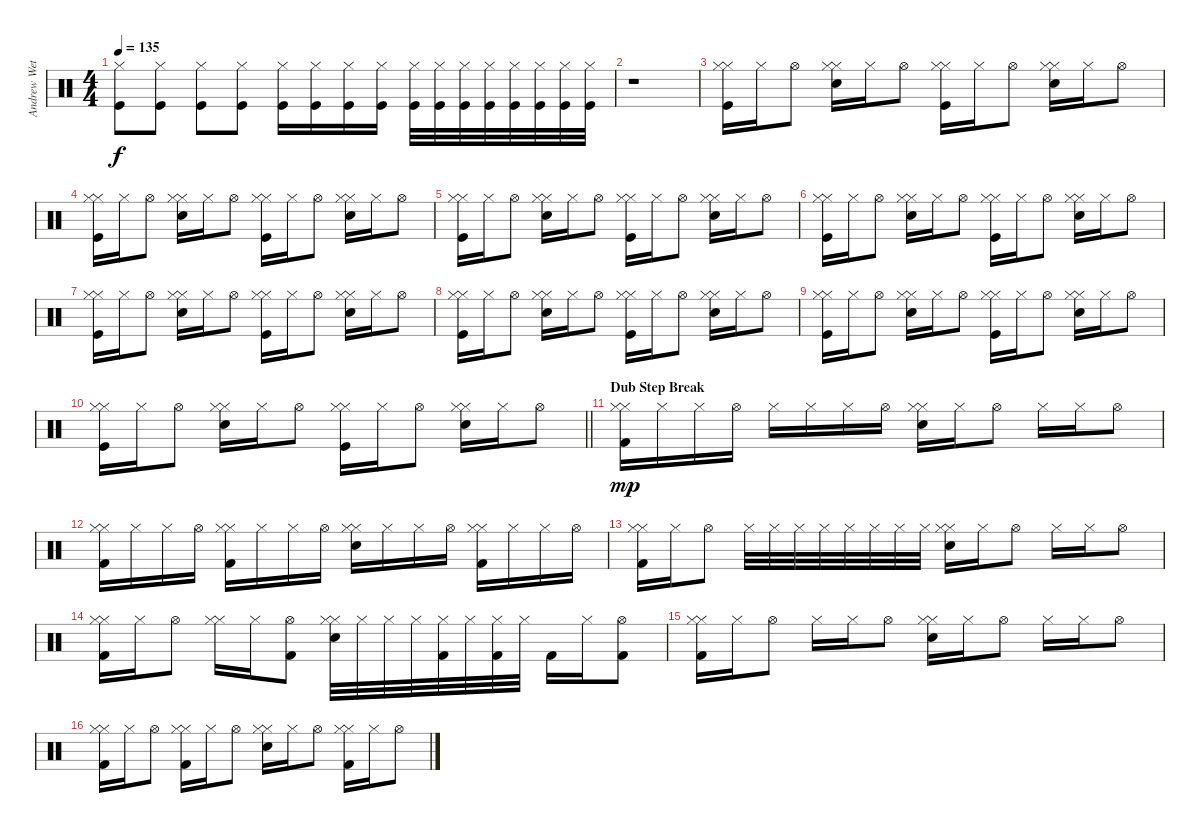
\track ("Andrew Wetzel" "Andrew Wet") {instrument percussion}
\staff
\articulation defaults
\ts (4 4)
\tempo 135
\clef neutral
\ks c
("Hi-Hat (closed)" "Kick (hit)").8{dy f} ("Hi-Hat (closed)" "Kick (hit)").8 ("Hi-Hat (closed)" "Kick (hit)").8 ("Hi-Hat (closed)" "Kick (hit)").8 ("Hi-Hat (closed)" "Kick (hit)").16 ("Hi-Hat (closed)" "Kick (hit)").16 ("Hi-Hat (closed)" "Kick (hit)").16 ("Hi-Hat (closed)" "Kick (hit)").16 ("Hi-Hat (closed)" "Kick (hit)").32 ("Hi-Hat (closed)" "Kick (hit)").32 ("Hi-Hat (closed)" "Kick (hit)").32 ("Hi-Hat (closed)" "Kick (hit)").32 ("Hi-Hat (closed)" "Kick (hit)").32 ("Hi-Hat (closed)" "Kick (hit)").32 ("Hi-Hat (closed)" "Kick (hit)").32 ("Hi-Hat (closed)" "Kick (hit)").32 |
r.1 |
("Hi-Hat (closed)" "Hi-Hat (closed)" "Kick (hit)").16{volume 13} "Hi-Hat (closed)".16 "Hi-Hat (open)".8 ("Hi-Hat (closed)" "Hi-Hat (closed)" "Electric Snare (hit)").16 "Hi-Hat (closed)".16 "Hi-Hat (open)".8 ("Hi-Hat (closed)" "Hi-Hat (closed)" "Kick (hit)").16 "Hi-Hat (closed)".16 "Hi-Hat (open)".8 ("Hi-Hat (closed)" "Hi-Hat (closed)" "Electric Snare (hit)").16 "Hi-Hat (closed)".16 "Hi-Hat (open)".8 |
("Hi-Hat (closed)" "Hi-Hat (closed)" "Kick (hit)").16 "Hi-Hat (closed)".16 "Hi-Hat (open)".8 ("Hi-Hat (closed)" "Hi-Hat (closed)" "Electric Snare (hit)").16 "Hi-Hat (closed)".16 "Hi-Hat (open)".8 ("Hi-Hat (closed)" "Hi-Hat (closed)" "Kick (hit)").16 "Hi-Hat (closed)".16 "Hi-Hat (open)".8 ("Hi-Hat (closed)" "Hi-Hat (closed)" "Electric Snare (hit)").16 "Hi-Hat (closed)".16 "Hi-Hat (open)".8 |
("Hi-Hat (closed)" "Hi-Hat (closed)" "Kick (hit)").16 "Hi-Hat (closed)".16 "Hi-Hat (open)".8 ("Hi-Hat (closed)" "Hi-Hat (closed)" "Electric Snare (hit)").16 "Hi-Hat (closed)".16 "Hi-Hat (open)".8 ("Hi-Hat (closed)" "Hi-Hat (closed)" "Kick (hit)").16 "Hi-Hat (closed)".16 "Hi-Hat (open)".8 ("Hi-Hat (closed)" "Hi-Hat (closed)" "Electric Snare (hit)").16 "Hi-Hat (closed)".16 "Hi-Hat (open)".8 |
("Hi-Hat (closed)" "Hi-Hat (closed)" "Kick (hit)").16 "Hi-Hat (closed)".16 "Hi-Hat (open)".8 ("Hi-Hat (closed)" "Hi-Hat (closed)" "Electric Snare (hit)").16 "Hi-Hat (closed)".16 "Hi-Hat (open)".8 ("Hi-Hat (closed)" "Hi-Hat (closed)" "Kick (hit)").16 "Hi-Hat (closed)".16 "Hi-Hat (open)".8 ("Hi-Hat (closed)" "Hi-Hat (closed)" "Electric Snare (hit)").16 "Hi-Hat (closed)".16 "Hi-Hat (open)".8 |
("Hi-Hat (closed)" "Hi-Hat (closed)" "Kick (hit)").16 "Hi-Hat (closed)".16 "Hi-Hat (open)".8 ("Hi-Hat (closed)" "Hi-Hat (closed)" "Electric Snare (hit)").16 "Hi-Hat (closed)".16 "Hi-Hat (open)".8 ("Hi-Hat (closed)" "Hi-Hat (closed)" "Kick (hit)").16 "Hi-Hat (closed)".16 "Hi-Hat (open)".8 ("Hi-Hat (closed)" "Hi-Hat (closed)" "Electric Snare (hit)").16 "Hi-Hat (closed)".16 "Hi-Hat (open)".8 |
("Hi-Hat (closed)" "Hi-Hat (closed)" "Kick (hit)").16 "Hi-Hat (closed)".16 "Hi-Hat (open)".8 ("Hi-Hat (closed)" "Hi-Hat (closed)" "Electric Snare (hit)").16 "Hi-Hat (closed)".16 "Hi-Hat (open)".8 ("Hi-Hat (closed)" "Hi-Hat (closed)" "Kick (hit)").16 "Hi-Hat (closed)".16 "Hi-Hat (open)".8 ("Hi-Hat (closed)" "Hi-Hat (closed)" "Electric Snare (hit)").16 "Hi-Hat (closed)".16 "Hi-Hat (open)".8 |
("Hi-Hat (closed)" "Hi-Hat (closed)" "Kick (hit)").16 "Hi-Hat (closed)".16 "Hi-Hat (open)".8 ("Hi-Hat (closed)" "Hi-Hat (closed)" "Electric Snare (hit)").16 "Hi-Hat (closed)".16 "Hi-Hat (open)".8 ("Hi-Hat (closed)" "Hi-Hat (closed)" "Kick (hit)").16 "Hi-Hat (closed)".16 "Hi-Hat (open)".8 ("Hi-Hat (closed)" "Hi-Hat (closed)" "Electric Snare (hit)").16 "Hi-Hat (closed)".16 "Hi-Hat (open)".8 |
\barLineRight lightlight
("Hi-Hat (closed)" "Hi-Hat (closed)" "Kick (hit)").16 "Hi-Hat (closed)".16 "Hi-Hat (open)".8 ("Hi-Hat (closed)" "Hi-Hat (closed)" "Electric Snare (hit)").16 "Hi-Hat (closed)".16 "Hi-Hat (open)".8 ("Hi-Hat (closed)" "Hi-Hat (closed)" "Kick (hit)").16 "Hi-Hat (closed)".16 "Hi-Hat (open)".8 ("Hi-Hat (closed)" "Hi-Hat (closed)" "Electric Snare (hit)").16 "Hi-Hat (closed)".16 "Hi-Hat (open)".8 |
\section ("" "Dub Step Break")
("Hi-Hat (closed)" "Hi-Hat (closed)" "Kick (hit) 2").16{dy mp volume 13} "Hi-Hat (closed)".16 "Hi-Hat (closed)".16 "Hi-Hat (open)".16 "Hi-Hat (closed)".16 "Hi-Hat (closed)".16 "Hi-Hat (closed)".16 "Hi-Hat (open)".16 ("Hi-Hat (closed)" "Hi-Hat (closed)" "Electric Snare (hit)").16 "Hi-Hat (closed)".16 "Hi-Hat (open)".8 "Hi-Hat (closed)".16 "Hi-Hat (closed)".16 "Hi-Hat (open)".8 |
("Hi-Hat (closed)" "Hi-Hat (closed)" "Kick (hit) 2").16 "Hi-Hat (closed)".16 "Hi-Hat (closed)".16 "Hi-Hat (open)".16 ("Hi-Hat (closed)" "Hi-Hat (closed)" "Kick (hit) 2").16 "Hi-Hat (closed)".16 "Hi-Hat (closed)".16 "Hi-Hat (open)".16 ("Hi-Hat (closed)" "Hi-Hat (closed)" "Electric Snare (hit)").16 "Hi-Hat (closed)".16 "Hi-Hat (closed)".16 "Hi-Hat (open)".16 ("Hi-Hat (closed)" "Hi-Hat (closed)" "Kick (hit) 2").16 "Hi-Hat (closed)".16 "Hi-Hat (closed)".16 "Hi-Hat (open)".16 |
("Hi-Hat (closed)" "Hi-Hat (closed)" "Kick (hit) 2").16 "Hi-Hat (closed)".16 "Hi-Hat (open)".8 "Hi-Hat (closed)".32 "Hi-Hat (closed)".32 "Hi-Hat (closed)".32 "Hi-Hat (closed)".32 "Hi-Hat (closed)".32 "Hi-Hat (closed)".32 "Hi-Hat (closed)".32 "Hi-Hat (closed)".32 ("Hi-Hat (closed)" "Hi-Hat (closed)" "Electric Snare (hit)").16 "Hi-Hat (closed)".16 "Hi-Hat (open)".8 "Hi-Hat (closed)".16 "Hi-Hat (closed)".16 "Hi-Hat (open)".8 |
("Hi-Hat (closed)" "Hi-Hat (closed)" "Kick (hit) 2").16 "Hi-Hat (closed)".16 "Hi-Hat (open)".8 ("Hi-Hat (closed)" "Hi-Hat (closed)").16 "Hi-Hat (closed)".16 ("Hi-Hat (open)" "Kick (hit) 2").8 ("Hi-Hat (closed)" "Hi-Hat (closed)" "Electric Snare (hit)").32 "Hi-Hat (closed)".32 "Hi-Hat (closed)".32 "Hi-Hat (closed)".32 ("Hi-Hat (closed)" "Kick (hit) 2").32 "Hi-Hat (closed)".32 ("Hi-Hat (closed)" "Kick (hit) 2").32 "Hi-Hat (closed)".32 "Kick (hit) 2".16 "Hi-Hat (closed)".16 ("Hi-Hat (open)" "Kick (hit) 2").8 |
("Hi-Hat (closed)" "Hi-Hat (closed)" "Kick (hit) 2").16 "Hi-Hat (closed)".16 "Hi-Hat (open)".8 "Hi-Hat (closed)".16 "Hi-Hat (closed)".16 "Hi-Hat (open)".8 ("Hi-Hat (closed)" "Hi-Hat (closed)" "Electric Snare (hit)").16 "Hi-Hat (closed)".16 "Hi-Hat (open)".8 "Hi-Hat (closed)".16 "Hi-Hat (closed)".16 "Hi-Hat (open)".8 |
("Hi-Hat (closed)" "Hi-Hat (closed)" "Kick (hit) 2").16 "Hi-Hat (closed)".16 "Hi-Hat (open)".8 ("Hi-Hat (closed)" "Hi-Hat (closed)" "Kick (hit) 2").16 "Hi-Hat (closed)".16 "Hi-Hat (open)".8 ("Hi-Hat (closed)" "Hi-Hat (closed)" "Electric Snare (hit)").16 "Hi-Hat (closed)".16 "Hi-Hat (open)".8 ("Hi-Hat (closed)" "Hi-Hat (closed)" "Kick (hit) 2").16 "Hi-Hat (closed)".16 "Hi-Hat (open)".8
